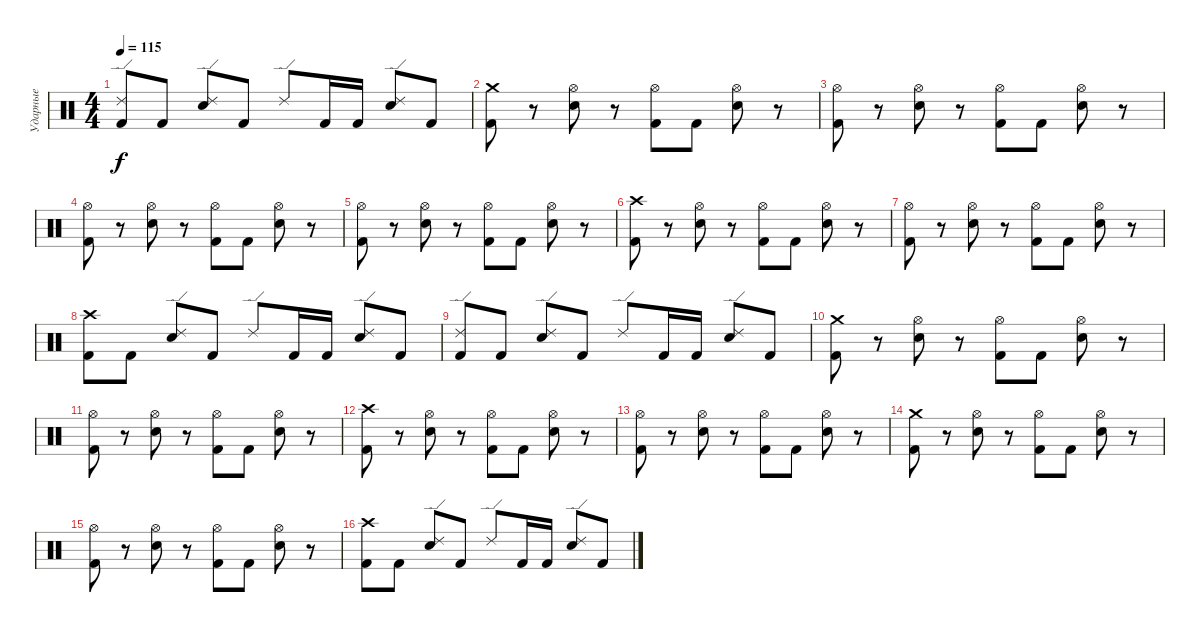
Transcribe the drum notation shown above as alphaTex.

\track ("Ударные" "Ударные") {instrument percussion}
\staff {score}
\articulation defaults
\ts (4 4)
\tempo 115
\clef neutral
\ks c
("Ride (edge) 2" "Kick (hit) 2").8{dy f} "Kick (hit) 2".8 ("Ride (edge) 2" "Electric Snare (hit)").8 "Kick (hit) 2".8 "Ride (edge) 2".8 "Kick (hit) 2".16 "Kick (hit) 2".16 ("Ride (edge) 2" "Electric Snare (hit)").8 "Kick (hit) 2".8 |
("Crash medium (hit)" "Kick (hit) 2").8 r.8 ("Hi-Hat (open)" "Electric Snare (hit)").8 r.8 ("Hi-Hat (open)" "Kick (hit) 2").8 "Kick (hit) 2".8 ("Hi-Hat (open)" "Electric Snare (hit)").8 r.8 |
("Hi-Hat (open)" "Kick (hit) 2").8 r.8 ("Hi-Hat (open)" "Electric Snare (hit)").8 r.8 ("Hi-Hat (open)" "Kick (hit) 2").8 "Kick (hit) 2".8 ("Hi-Hat (open)" "Electric Snare (hit)").8 r.8 |
("Hi-Hat (open)" "Kick (hit) 2").8 r.8 ("Hi-Hat (open)" "Electric Snare (hit)").8 r.8 ("Hi-Hat (open)" "Kick (hit) 2").8 "Kick (hit) 2".8 ("Hi-Hat (open)" "Electric Snare (hit)").8 r.8 |
("Hi-Hat (open)" "Kick (hit) 2").8 r.8 ("Hi-Hat (open)" "Electric Snare (hit)").8 r.8 ("Hi-Hat (open)" "Kick (hit) 2").8 "Kick (hit) 2".8 ("Hi-Hat (open)" "Electric Snare (hit)").8 r.8 |
("Crash high (hit)" "Kick (hit) 2").8 r.8 ("Hi-Hat (open)" "Electric Snare (hit)").8 r.8 ("Hi-Hat (open)" "Kick (hit) 2").8 "Kick (hit) 2".8 ("Hi-Hat (open)" "Electric Snare (hit)").8 r.8 |
("Hi-Hat (open)" "Kick (hit) 2").8 r.8 ("Hi-Hat (open)" "Electric Snare (hit)").8 r.8 ("Hi-Hat (open)" "Kick (hit) 2").8 "Kick (hit) 2".8 ("Hi-Hat (open)" "Electric Snare (hit)").8 r.8 |
("Crash high (hit)" "Kick (hit) 2").8 "Kick (hit) 2".8 ("Ride (edge) 2" "Electric Snare (hit)").8 "Kick (hit) 2".8 "Ride (edge) 2".8 "Kick (hit) 2".16 "Kick (hit) 2".16 ("Ride (edge) 2" "Electric Snare (hit)").8 "Kick (hit) 2".8 |
("Ride (edge) 2" "Kick (hit) 2").8 "Kick (hit) 2".8 ("Ride (edge) 2" "Electric Snare (hit)").8 "Kick (hit) 2".8 "Ride (edge) 2".8 "Kick (hit) 2".16 "Kick (hit) 2".16 ("Ride (edge) 2" "Electric Snare (hit)").8 "Kick (hit) 2".8 |
("Crash medium (hit)" "Kick (hit) 2").8 r.8 ("Hi-Hat (open)" "Electric Snare (hit)").8 r.8 ("Hi-Hat (open)" "Kick (hit) 2").8 "Kick (hit) 2".8 ("Hi-Hat (open)" "Electric Snare (hit)").8 r.8 |
("Hi-Hat (open)" "Kick (hit) 2").8 r.8 ("Hi-Hat (open)" "Electric Snare (hit)").8 r.8 ("Hi-Hat (open)" "Kick (hit) 2").8 "Kick (hit) 2".8 ("Hi-Hat (open)" "Electric Snare (hit)").8 r.8 |
("Crash high (hit)" "Kick (hit) 2").8 r.8 ("Hi-Hat (open)" "Electric Snare (hit)").8 r.8 ("Hi-Hat (open)" "Kick (hit) 2").8 "Kick (hit) 2".8 ("Hi-Hat (open)" "Electric Snare (hit)").8 r.8 |
("Hi-Hat (open)" "Kick (hit) 2").8 r.8 ("Hi-Hat (open)" "Electric Snare (hit)").8 r.8 ("Hi-Hat (open)" "Kick (hit) 2").8 "Kick (hit) 2".8 ("Hi-Hat (open)" "Electric Snare (hit)").8 r.8 |
("Crash medium (hit)" "Kick (hit) 2").8 r.8 ("Hi-Hat (open)" "Electric Snare (hit)").8 r.8 ("Hi-Hat (open)" "Kick (hit) 2").8 "Kick (hit) 2".8 ("Hi-Hat (open)" "Electric Snare (hit)").8 r.8 |
("Hi-Hat (open)" "Kick (hit) 2").8 r.8 ("Hi-Hat (open)" "Electric Snare (hit)").8 r.8 ("Hi-Hat (open)" "Kick (hit) 2").8 "Kick (hit) 2".8 ("Hi-Hat (open)" "Electric Snare (hit)").8 r.8 |
("Crash high (hit)" "Kick (hit) 2").8 "Kick (hit) 2".8 ("Ride (edge) 2" "Electric Snare (hit)").8 "Kick (hit) 2".8 "Ride (edge) 2".8 "Kick (hit) 2".16 "Kick (hit) 2".16 ("Ride (edge) 2" "Electric Snare (hit)").8 "Kick (hit) 2".8
